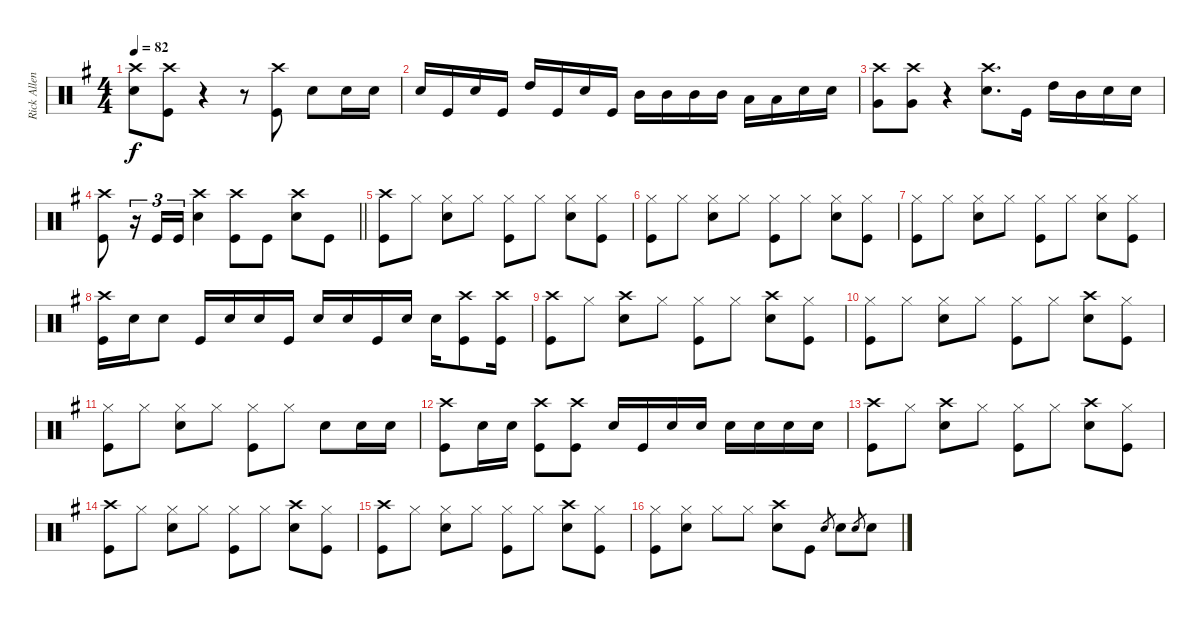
\track ("Rick Allen" "Rick Allen") {instrument percussion}
\staff {score}
\articulation defaults
\ts (4 4)
\tempo 82
\clef neutral
\ks eminor
("Crash high (hit)" "Snare (hit) 2").8{dy f} ("Crash high (hit)" "Kick (hit)").8 r.4 r.8 ("Crash high (hit)" "Kick (hit)").8 "Snare (hit) 2".8 "Snare (hit) 2".16 "Snare (hit) 2".16 |
"Snare (hit) 2".16 "Kick (hit)".16 "Snare (hit) 2".16 "Kick (hit)".16 "High Tom (hit)".16 "Kick (hit)".16 "Snare (hit) 2".16 "Kick (hit)".16 "Mid Tom (hit)".16 "Mid Tom (hit)".16 "Mid Tom (hit)".16 "Mid Tom (hit)".16 "Low Tom (hit)".16 "Low Tom (hit)".16 "Snare (hit) 2".16 "Snare (hit) 2".16 |
("Crash high (hit)" "Very Low Tom (hit)").8 ("Crash high (hit)" "Very Low Tom (hit)").8 r.4 ("Crash high (hit)" "Snare (hit) 2").8{d} "Kick (hit)".16 "High Tom (hit)".16 "Mid Tom (hit)".16 "Snare (hit) 2".16 "Snare (hit) 2".16 |
\barLineRight lightlight
("Crash high (hit)" "Kick (hit)").8 r.16{tu (3 2)} "Kick (hit)".16{tu (3 2)} "Kick (hit)".16{tu (3 2)} ("Crash high (hit)" "Snare (hit) 2").4 ("Crash high (hit)" "Kick (hit)").8 "Kick (hit)".8 ("Crash high (hit)" "Snare (hit) 2").8 "Kick (hit)".8 |
("Crash high (hit)" "Kick (hit)").8 "Hi-Hat (closed)".8 ("Hi-Hat (closed)" "Snare (hit) 2").8 "Hi-Hat (closed)".8 ("Hi-Hat (closed)" "Kick (hit)").8 "Hi-Hat (closed)".8 ("Hi-Hat (closed)" "Snare (hit) 2").8 ("Hi-Hat (closed)" "Kick (hit)").8 |
("Hi-Hat (closed)" "Kick (hit)").8 "Hi-Hat (closed)".8 ("Hi-Hat (closed)" "Snare (hit) 2").8 "Hi-Hat (closed)".8 ("Hi-Hat (closed)" "Kick (hit)").8 "Hi-Hat (closed)".8 ("Hi-Hat (closed)" "Snare (hit) 2").8 ("Hi-Hat (closed)" "Kick (hit)").8 |
("Hi-Hat (closed)" "Kick (hit)").8 "Hi-Hat (closed)".8 ("Hi-Hat (closed)" "Snare (hit) 2").8 "Hi-Hat (closed)".8 ("Hi-Hat (closed)" "Kick (hit)").8 "Hi-Hat (closed)".8 ("Hi-Hat (closed)" "Snare (hit) 2").8 ("Hi-Hat (closed)" "Kick (hit)").8 |
("Crash high (hit)" "Kick (hit)").16 "Snare (hit) 2".16 "Snare (hit) 2".8 "Kick (hit)".16 "Snare (hit) 2".16 "Snare (hit) 2".16 "Kick (hit)".16 "Snare (hit) 2".16 "Snare (hit) 2".16 "Kick (hit)".16 "Snare (hit) 2".16 "Snare (hit) 2".16 ("Crash high (hit)" "Kick (hit)").8 ("Crash high (hit)" "Kick (hit)").16 |
("Crash high (hit)" "Kick (hit)").8 "Hi-Hat (closed)".8 ("Crash high (hit)" "Snare (hit) 2").8 "Hi-Hat (closed)".8 ("Hi-Hat (closed)" "Kick (hit)").8 "Hi-Hat (closed)".8 ("Crash high (hit)" "Snare (hit) 2").8 ("Hi-Hat (closed)" "Kick (hit)").8 |
("Hi-Hat (closed)" "Kick (hit)").8 "Hi-Hat (closed)".8 ("Hi-Hat (closed)" "Snare (hit) 2").8 "Hi-Hat (closed)".8 ("Hi-Hat (closed)" "Kick (hit)").8 "Hi-Hat (closed)".8 ("Crash high (hit)" "Snare (hit) 2").8 ("Hi-Hat (closed)" "Kick (hit)").8 |
("Hi-Hat (closed)" "Kick (hit)").8 "Hi-Hat (closed)".8 ("Hi-Hat (closed)" "Snare (hit) 2").8 "Hi-Hat (closed)".8 ("Hi-Hat (closed)" "Kick (hit)").8 "Hi-Hat (closed)".8 "Snare (hit) 2".8 "Snare (hit) 2".16 "Snare (hit) 2".16 |
("Crash high (hit)" "Kick (hit)").8 "Snare (hit) 2".16 "Snare (hit) 2".16 ("Crash high (hit)" "Kick (hit)").8 ("Crash high (hit)" "Kick (hit)").8 "Snare (hit) 2".16 "Kick (hit)".16 "Snare (hit) 2".16 "Snare (hit) 2".16 "Snare (hit) 2".16 "Snare (hit) 2".16 "Snare (hit) 2".16 "Snare (hit) 2".16 |
("Crash high (hit)" "Kick (hit)").8 "Hi-Hat (closed)".8 ("Crash high (hit)" "Snare (hit) 2").8 "Hi-Hat (closed)".8 ("Hi-Hat (closed)" "Kick (hit)").8 "Hi-Hat (closed)".8 ("Crash high (hit)" "Snare (hit) 2").8 ("Hi-Hat (closed)" "Kick (hit)").8 |
("Crash high (hit)" "Kick (hit)").8 "Hi-Hat (closed)".8 ("Hi-Hat (closed)" "Snare (hit) 2").8 "Hi-Hat (closed)".8 ("Hi-Hat (closed)" "Kick (hit)").8 "Hi-Hat (closed)".8 ("Crash high (hit)" "Snare (hit) 2").8 ("Hi-Hat (closed)" "Kick (hit)").8 |
("Crash high (hit)" "Kick (hit)").8 "Hi-Hat (closed)".8 ("Hi-Hat (closed)" "Snare (hit) 2").8 "Hi-Hat (closed)".8 ("Hi-Hat (closed)" "Kick (hit)").8 "Hi-Hat (closed)".8 ("Crash high (hit)" "Snare (hit) 2").8 ("Hi-Hat (closed)" "Kick (hit)").8 |
("Hi-Hat (closed)" "Kick (hit)").8 ("Hi-Hat (closed)" "Snare (hit) 2").8 "Hi-Hat (closed)".8 "Hi-Hat (closed)".8 ("Crash high (hit)" "Snare (hit) 2").8 "Kick (hit)".8 "Snare (hit) 2".8{gr} "Snare (hit) 2".8 "Snare (hit) 2".8{gr} "Snare (hit) 2".8
